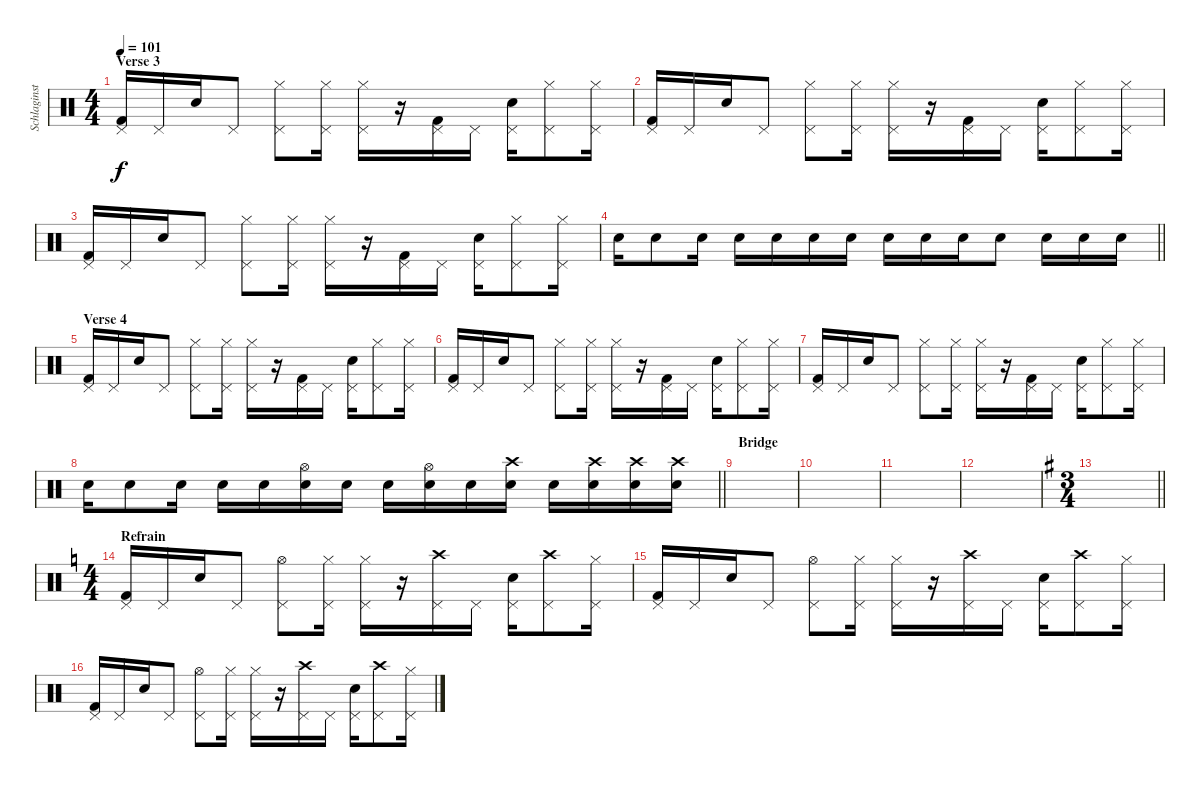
\track ("Schlaginstrumente - Auswahl" "Schlaginst") {instrument percussion}
\staff {score}
\articulation defaults
\ts (4 4)
\section ("" "Verse 3")
\tempo 101
\clef neutral
\ks c
("Kick (hit) 2" "Pedal Hi-Hat (hit)").16{dy f} "Pedal Hi-Hat (hit)".16 "Electric Snare (hit)".16 "Pedal Hi-Hat (hit)".8 ("Hi-Hat (closed)" "Pedal Hi-Hat (hit)").8 ("Hi-Hat (closed)" "Pedal Hi-Hat (hit)").16 ("Hi-Hat (closed)" "Pedal Hi-Hat (hit)").16 r.16 ("Kick (hit) 2" "Pedal Hi-Hat (hit)").16 "Pedal Hi-Hat (hit)".16 ("Snare (hit) 2" "Pedal Hi-Hat (hit)").16 ("Hi-Hat (closed)" "Pedal Hi-Hat (hit)").8 ("Hi-Hat (closed)" "Pedal Hi-Hat (hit)").16 |
("Kick (hit) 2" "Pedal Hi-Hat (hit)").16 "Pedal Hi-Hat (hit)".16 "Electric Snare (hit)".16 "Pedal Hi-Hat (hit)".8 ("Hi-Hat (closed)" "Pedal Hi-Hat (hit)").8 ("Hi-Hat (closed)" "Pedal Hi-Hat (hit)").16 ("Hi-Hat (closed)" "Pedal Hi-Hat (hit)").16 r.16 ("Kick (hit) 2" "Pedal Hi-Hat (hit)").16 "Pedal Hi-Hat (hit)".16 ("Snare (hit) 2" "Pedal Hi-Hat (hit)").16 ("Hi-Hat (closed)" "Pedal Hi-Hat (hit)").8 ("Hi-Hat (closed)" "Pedal Hi-Hat (hit)").16 |
("Kick (hit) 2" "Pedal Hi-Hat (hit)").16 "Pedal Hi-Hat (hit)".16 "Electric Snare (hit)".16 "Pedal Hi-Hat (hit)".8 ("Hi-Hat (closed)" "Pedal Hi-Hat (hit)").8 ("Hi-Hat (closed)" "Pedal Hi-Hat (hit)").16 ("Hi-Hat (closed)" "Pedal Hi-Hat (hit)").16 r.16 ("Kick (hit) 2" "Pedal Hi-Hat (hit)").16 "Pedal Hi-Hat (hit)".16 ("Snare (hit) 2" "Pedal Hi-Hat (hit)").16 ("Hi-Hat (closed)" "Pedal Hi-Hat (hit)").8 ("Hi-Hat (closed)" "Pedal Hi-Hat (hit)").16 |
\barLineRight lightlight "Electric Snare (hit)".16 "Electric Snare (hit)".8 "Electric Snare (hit)".16 "Electric Snare (hit)".16 "Electric Snare (hit)".16 "Electric Snare (hit)".16 "Electric Snare (hit)".16 "Electric Snare (hit)".16 "Electric Snare (hit)".16 "Electric Snare (hit)".16 "Electric Snare (hit)".8 "Electric Snare (hit)".16 "Electric Snare (hit)".16 "Electric Snare (hit)".16
|
\section ("" "Verse 4")
("Kick (hit) 2" "Pedal Hi-Hat (hit)").16 "Pedal Hi-Hat (hit)".16 "Electric Snare (hit)".16 "Pedal Hi-Hat (hit)".8 ("Hi-Hat (closed)" "Pedal Hi-Hat (hit)").8 ("Hi-Hat (closed)" "Pedal Hi-Hat (hit)").16 ("Hi-Hat (closed)" "Pedal Hi-Hat (hit)").16 r.16 ("Kick (hit) 2" "Pedal Hi-Hat (hit)").16 "Pedal Hi-Hat (hit)".16 ("Snare (hit) 2" "Pedal Hi-Hat (hit)").16 ("Hi-Hat (closed)" "Pedal Hi-Hat (hit)").8 ("Hi-Hat (closed)" "Pedal Hi-Hat (hit)").16 |
("Kick (hit) 2" "Pedal Hi-Hat (hit)").16 "Pedal Hi-Hat (hit)".16 "Electric Snare (hit)".16 "Pedal Hi-Hat (hit)".8 ("Hi-Hat (closed)" "Pedal Hi-Hat (hit)").8 ("Hi-Hat (closed)" "Pedal Hi-Hat (hit)").16 ("Hi-Hat (closed)" "Pedal Hi-Hat (hit)").16 r.16 ("Kick (hit) 2" "Pedal Hi-Hat (hit)").16 "Pedal Hi-Hat (hit)".16 ("Snare (hit) 2" "Pedal Hi-Hat (hit)").16 ("Hi-Hat (closed)" "Pedal Hi-Hat (hit)").8 ("Hi-Hat (closed)" "Pedal Hi-Hat (hit)").16 |
("Kick (hit) 2" "Pedal Hi-Hat (hit)").16 "Pedal Hi-Hat (hit)".16 "Electric Snare (hit)".16 "Pedal Hi-Hat (hit)".8 ("Hi-Hat (closed)" "Pedal Hi-Hat (hit)").8 ("Hi-Hat (closed)" "Pedal Hi-Hat (hit)").16 ("Hi-Hat (closed)" "Pedal Hi-Hat (hit)").16 r.16 ("Kick (hit) 2" "Pedal Hi-Hat (hit)").16 "Pedal Hi-Hat (hit)".16 ("Snare (hit) 2" "Pedal Hi-Hat (hit)").16 ("Hi-Hat (closed)" "Pedal Hi-Hat (hit)").8 ("Hi-Hat (closed)" "Pedal Hi-Hat (hit)").16 |
\barLineRight lightlight "Electric Snare (hit)".16 "Electric Snare (hit)".8 "Electric Snare (hit)".16 "Electric Snare (hit)".16 "Electric Snare (hit)".16
("Electric Snare (hit)" "Hi-Hat (open)").16 "Electric Snare (hit)".16 "Electric Snare (hit)".16 ("Electric Snare (hit)" "Hi-Hat (open)").16 "Electric Snare (hit)".16 ("Electric Snare (hit)" "Crash high (hit)").16 "Electric Snare (hit)".16 ("Electric Snare (hit)" "Crash high (hit)").16 ("Electric Snare (hit)" "Crash high (hit)").16 ("Electric Snare (hit)" "Crash high (hit)").16 |
\section ("" "Bridge")
|
|
|
|
\ts (3 4)
\barLineRight lightlight
\ks g
|
\ts (4 4)
\section ("" "Refrain")
\ks c
("Kick (hit) 2" "Pedal Hi-Hat (hit)").16 "Pedal Hi-Hat (hit)".16 "Electric Snare (hit)".16 "Pedal Hi-Hat (hit)".8 ("Hi-Hat (open)" "Pedal Hi-Hat (hit)").8 ("Hi-Hat (closed)" "Pedal Hi-Hat (hit)").16 ("Hi-Hat (closed)" "Pedal Hi-Hat (hit)").16 r.16 ("Crash high (hit)" "Pedal Hi-Hat (hit)").16 "Pedal Hi-Hat (hit)".16 ("Snare (hit) 2" "Pedal Hi-Hat (hit)").16 ("Crash high (hit)" "Pedal Hi-Hat (hit)").8 ("Hi-Hat (closed)" "Pedal Hi-Hat (hit)").16 |
("Kick (hit) 2" "Pedal Hi-Hat (hit)").16 "Pedal Hi-Hat (hit)".16 "Electric Snare (hit)".16 "Pedal Hi-Hat (hit)".8 ("Hi-Hat (open)" "Pedal Hi-Hat (hit)").8 ("Hi-Hat (closed)" "Pedal Hi-Hat (hit)").16 ("Hi-Hat (closed)" "Pedal Hi-Hat (hit)").16 r.16 ("Crash high (hit)" "Pedal Hi-Hat (hit)").16 "Pedal Hi-Hat (hit)".16 ("Snare (hit) 2" "Pedal Hi-Hat (hit)").16 ("Crash high (hit)" "Pedal Hi-Hat (hit)").8 ("Hi-Hat (closed)" "Pedal Hi-Hat (hit)").16 |
("Kick (hit) 2" "Pedal Hi-Hat (hit)").16 "Pedal Hi-Hat (hit)".16 "Electric Snare (hit)".16 "Pedal Hi-Hat (hit)".8 ("Hi-Hat (open)" "Pedal Hi-Hat (hit)").8 ("Hi-Hat (closed)" "Pedal Hi-Hat (hit)").16 ("Hi-Hat (closed)" "Pedal Hi-Hat (hit)").16 r.16 ("Crash high (hit)" "Pedal Hi-Hat (hit)").16 "Pedal Hi-Hat (hit)".16 ("Snare (hit) 2" "Pedal Hi-Hat (hit)").16 ("Crash high (hit)" "Pedal Hi-Hat (hit)").8 ("Hi-Hat (closed)" "Pedal Hi-Hat (hit)").16
